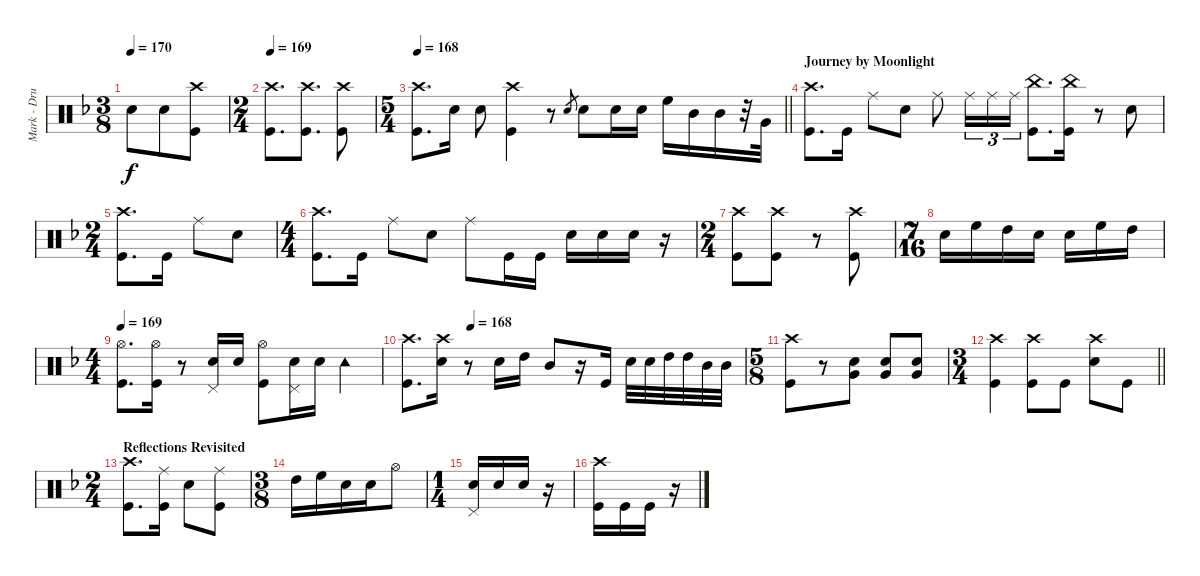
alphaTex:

\track ("Mark - Drums" "Mark - Dru") {instrument percussion}
\staff {score}
\articulation defaults
\ts (3 8)
\tempo 170
\clef neutral
\ks dminor "Snare (hit) 2".8{dy f} "Snare (hit) 2".8
("Kick (hit)" "Crash high (hit)").8 |
\ts (2 4)
\tempo 169
("Kick (hit)" "Crash high (hit)").8{d} ("Kick (hit)" "Crash high (hit)").8{d} ("Kick (hit)" "Crash high (hit)").8 |
\ts (5 4)
\tempo 168
\barLineRight lightlight
("Crash high (hit)" "Kick (hit)").8{d} "Snare (hit) 2".16 "Snare (hit) 2".8 ("Kick (hit)" "Crash high (hit)").4 r.8 "Snare (hit) 2".8{gr} "Snare (hit) 2".8 "Snare (hit) 2".16 "Snare (hit) 2".16 "High Floor Tom (hit)".16 "Mid Tom (hit)".16 "Mid Tom (hit)".16 r.32 "Very Low Tom (hit)".32 |
\section ("" "Journey by Moonlight")
("Kick (hit)" "Crash high (hit)").8{d} "Kick (hit)".16 "Ride (middle)".8 "Snare (hit) 2".8 "Ride (middle)".8 "Ride (middle)".16{tu (3 2)} "Ride (middle)".16{tu (3 2)} "Ride (middle)".16{tu (3 2)} ("Kick (hit)" "China (hit)").8{d} ("Kick (hit)" "China (hit)").16 r.8 "Snare (hit) 2".8 |
\ts (2 4)
("Crash high (hit)" "Kick (hit)").8{d} "Kick (hit)".16 "Ride (middle)".8 "Snare (hit) 2".8 |
\ts (4 4)
("Kick (hit)" "Crash high (hit)").8{d} "Kick (hit)".16 "Ride (middle)".8 "Snare (hit) 2".8 "Ride (middle)".8 "Kick (hit)".16 "Kick (hit)".16 "Snare (hit) 2".16 "Snare (hit) 2".16 "Snare (hit) 2".16 r.16 |
\ts (2 4)
("Kick (hit)" "Crash high (hit)").8 ("Kick (hit)" "Crash high (hit)").8 r.8 ("Kick (hit)" "Crash high (hit)").8 |
\ts (7 16)
"Snare (hit) 2".16 "High Floor Tom (hit)".16 "High Tom (hit)".16 "Snare (hit) 2".16 "Snare (hit) 2".16 "High Floor Tom (hit)".16 "High Tom (hit)".16 |
\ts (4 4)
\tempo 169
("Kick (hit)" "Hi-Hat (open)").8{d} ("Kick (hit)" "Hi-Hat (open)").16 r.8 ("Snare (hit) 2" "Pedal Hi-Hat (hit)").16 "Snare (hit) 2".16 ("Kick (hit)" "Hi-Hat (open)").8 ("Snare (hit) 2" "Pedal Hi-Hat (hit)").16 "Snare (hit) 2".16 "Tambourine (hit)".4 |
\tempo (168 0.1875)
("Kick (hit)" "Crash high (hit)").8{d} ("Snare (hit) 2" "Crash high (hit)").16 r.8 "Snare (hit) 2".16 "High Tom (hit)".16 "Mid Tom (hit)".8 r.16 "Kick (hit)".16 "Snare (hit) 2".32 "Snare (hit) 2".32 "High Tom (hit)".32 "High Tom (hit)".32 "Mid Tom (hit)".32 "Mid Tom (hit)".32 |
\ts (5 8)
("Kick (hit)" "Crash high (hit)").8 r.8 ("Very Low Tom (hit)" "Snare (hit) 2").8 ("Very Low Tom (hit)" "Snare (hit) 2").8 ("Snare (hit) 2" "Very Low Tom (hit)").8 |
\ts (3 4)
\barLineRight lightlight
("Kick (hit)" "Crash high (hit)").4 ("Kick (hit)" "Crash high (hit)").8 "Kick (hit)".8 ("Snare (hit) 2" "Crash high (hit)").8 "Kick (hit)".8 |
\ts (2 4)
\section ("" "Reflections Revisited")
("Crash high (hit)" "Kick (hit)").8{d} ("Kick (hit)" "Ride (middle)").16 "Snare (hit) 2".8 ("Kick (hit)" "Ride (middle)").8 |
\ts (3 8)
"High Tom (hit)".16 "High Floor Tom (hit)".16 "Snare (hit) 2".16 "Snare (hit) 2".16 "Hi-Hat (open)".8 |
\ts (1 4)
("Snare (hit) 2" "Pedal Hi-Hat (hit)").16 "Snare (hit) 2".16 "Snare (hit) 2".16 r.16 |
("Kick (hit)" "Crash high (hit)").16 "Kick (hit)".16 "Kick (hit)".16 r.16
